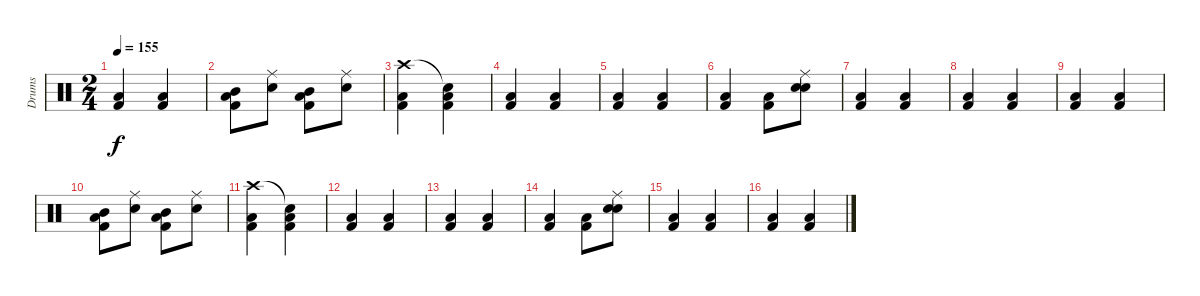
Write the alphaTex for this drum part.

\track ("Drums" "Drums") {instrument percussion}
\staff {score}
\articulation defaults
\ts (2 4)
\tempo 155
\clef neutral
\ks c
("Low Floor Tom (hit)" "Kick (hit) 2").4{dy f} ("Low Floor Tom (hit)" "Kick (hit) 2").4 |
("Low Floor Tom (hit)" "Kick (hit) 2" "Mid Tom (hit)").8 ("Snare (hit) 2" "Ride (middle)").8 ("Low Floor Tom (hit)" "Kick (hit) 2" "Mid Tom (hit)").8 ("Snare (hit) 2" "Ride (middle)").8 |
("Low Floor Tom (hit)" "Kick (hit) 2" "Crash high (hit)").4 ("Low Floor Tom (hit)" "Kick (hit) 2" "Snare (hit)"{t}).4 |
("Low Floor Tom (hit)" "Kick (hit) 2").4 ("Low Floor Tom (hit)" "Kick (hit) 2").4 |
("Low Floor Tom (hit)" "Kick (hit) 2").4 ("Low Floor Tom (hit)" "Kick (hit) 2").4 |
("Low Floor Tom (hit)" "Kick (hit) 2").4 ("Low Floor Tom (hit)" "Kick (hit) 2").8 ("Snare (hit) 2" "Ride (middle)" "Snare (hit) 2").8 |
("Low Floor Tom (hit)" "Kick (hit) 2").4 ("Low Floor Tom (hit)" "Kick (hit) 2").4 |
("Low Floor Tom (hit)" "Kick (hit) 2").4 ("Low Floor Tom (hit)" "Kick (hit) 2").4 |
("Low Floor Tom (hit)" "Kick (hit) 2").4 ("Low Floor Tom (hit)" "Kick (hit) 2").4 |
("Low Floor Tom (hit)" "Kick (hit) 2" "Mid Tom (hit)").8 ("Snare (hit) 2" "Ride (middle)").8 ("Low Floor Tom (hit)" "Kick (hit) 2" "Mid Tom (hit)").8 ("Snare (hit) 2" "Ride (middle)").8 |
("Low Floor Tom (hit)" "Kick (hit) 2" "Crash high (hit)").4 ("Low Floor Tom (hit)" "Kick (hit) 2" "Snare (hit)"{t}).4 |
("Low Floor Tom (hit)" "Kick (hit) 2").4 ("Low Floor Tom (hit)" "Kick (hit) 2").4 |
("Low Floor Tom (hit)" "Kick (hit) 2").4 ("Low Floor Tom (hit)" "Kick (hit) 2").4 |
("Low Floor Tom (hit)" "Kick (hit) 2").4 ("Low Floor Tom (hit)" "Kick (hit) 2").8 ("Snare (hit) 2" "Ride (middle)" "Snare (hit) 2").8 |
("Low Floor Tom (hit)" "Kick (hit) 2").4 ("Low Floor Tom (hit)" "Kick (hit) 2").4 |
("Low Floor Tom (hit)" "Kick (hit) 2").4 ("Low Floor Tom (hit)" "Kick (hit) 2").4
